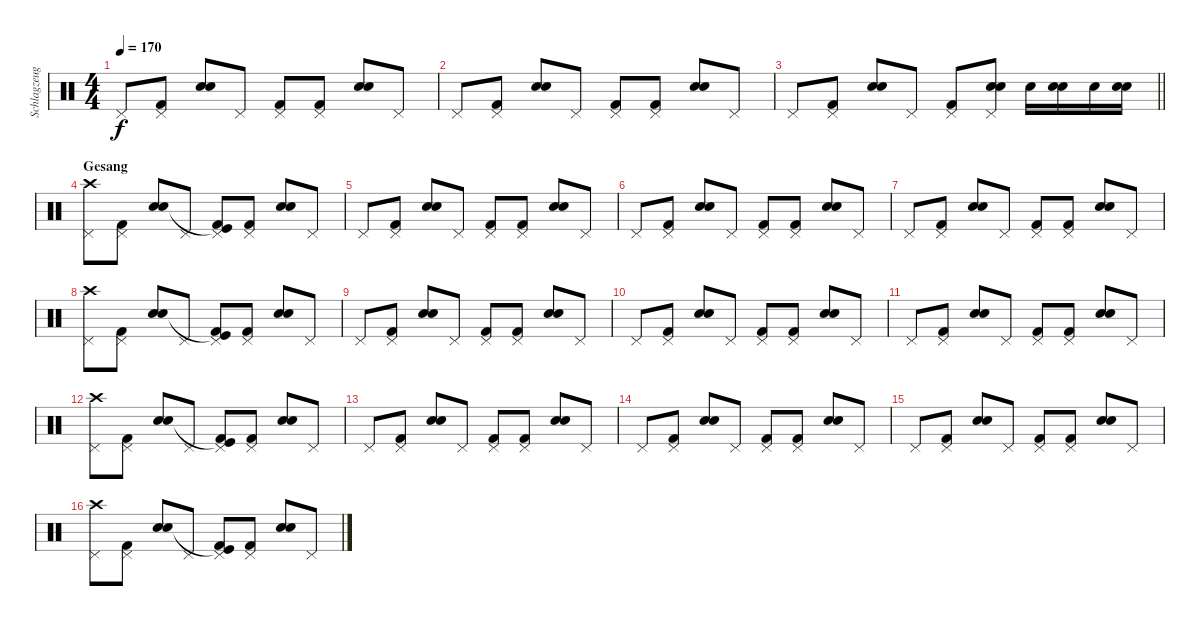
\track ("Schlagzeug" "Schlagzeug") {instrument percussion}
\staff {score}
\articulation defaults
\ts (4 4)
\tempo 170
\clef neutral
\ks c "Pedal Hi-Hat (hit)".8{dy f}
("Pedal Hi-Hat (hit)" "Kick (hit) 2").8 ("Snare (hit) 2" "Snare (hit) 2").8 "Pedal Hi-Hat (hit)".8 ("Pedal Hi-Hat (hit)" "Kick (hit) 2").8 ("Pedal Hi-Hat (hit)" "Kick (hit) 2").8 ("Snare (hit) 2" "Snare (hit) 2").8 "Pedal Hi-Hat (hit)".8 |
"Pedal Hi-Hat (hit)".8 ("Pedal Hi-Hat (hit)" "Kick (hit) 2").8 ("Snare (hit) 2" "Snare (hit) 2").8 "Pedal Hi-Hat (hit)".8 ("Pedal Hi-Hat (hit)" "Kick (hit) 2").8 ("Pedal Hi-Hat (hit)" "Kick (hit) 2").8 ("Snare (hit) 2" "Snare (hit) 2").8 "Pedal Hi-Hat (hit)".8 |
\barLineRight lightlight "Pedal Hi-Hat (hit)".8
("Pedal Hi-Hat (hit)" "Kick (hit) 2").8 ("Snare (hit) 2" "Snare (hit) 2").8 "Pedal Hi-Hat (hit)".8 ("Pedal Hi-Hat (hit)" "Kick (hit) 2").8 ("Pedal Hi-Hat (hit)" "Snare (hit) 2" "Snare (hit) 2").8 "Snare (hit) 2".16 ("Snare (hit) 2" "Snare (hit) 2").16 "Snare (hit) 2".16 ("Snare (hit) 2" "Snare (hit) 2").16 |
\section ("" "Gesang")
("Pedal Hi-Hat (hit)" "Crash high (hit)").8 ("Pedal Hi-Hat (hit)" "Kick (hit) 2").8 ("Snare (hit) 2" "Snare (hit) 2").8 "Pedal Hi-Hat (hit)".8 ("Pedal Hi-Hat (hit)" "Kick (hit)"{t} "Kick (hit) 2").8 ("Pedal Hi-Hat (hit)" "Kick (hit) 2").8 ("Snare (hit) 2" "Snare (hit) 2").8 "Pedal Hi-Hat (hit)".8 |
"Pedal Hi-Hat (hit)".8 ("Pedal Hi-Hat (hit)" "Kick (hit) 2").8 ("Snare (hit) 2" "Snare (hit) 2").8 "Pedal Hi-Hat (hit)".8 ("Pedal Hi-Hat (hit)" "Kick (hit) 2").8 ("Pedal Hi-Hat (hit)" "Kick (hit) 2").8 ("Snare (hit) 2" "Snare (hit) 2").8 "Pedal Hi-Hat (hit)".8 |
"Pedal Hi-Hat (hit)".8 ("Pedal Hi-Hat (hit)" "Kick (hit) 2").8 ("Snare (hit) 2" "Snare (hit) 2").8 "Pedal Hi-Hat (hit)".8 ("Pedal Hi-Hat (hit)" "Kick (hit) 2").8 ("Pedal Hi-Hat (hit)" "Kick (hit) 2").8 ("Snare (hit) 2" "Snare (hit) 2").8 "Pedal Hi-Hat (hit)".8 |
"Pedal Hi-Hat (hit)".8 ("Pedal Hi-Hat (hit)" "Kick (hit) 2").8 ("Snare (hit) 2" "Snare (hit) 2").8 "Pedal Hi-Hat (hit)".8 ("Pedal Hi-Hat (hit)" "Kick (hit) 2").8 ("Pedal Hi-Hat (hit)" "Kick (hit) 2").8 ("Snare (hit) 2" "Snare (hit) 2").8 "Pedal Hi-Hat (hit)".8 |
("Pedal Hi-Hat (hit)" "Crash high (hit)").8 ("Pedal Hi-Hat (hit)" "Kick (hit) 2").8 ("Snare (hit) 2" "Snare (hit) 2").8 "Pedal Hi-Hat (hit)".8 ("Pedal Hi-Hat (hit)" "Kick (hit)"{t} "Kick (hit) 2").8 ("Pedal Hi-Hat (hit)" "Kick (hit) 2").8 ("Snare (hit) 2" "Snare (hit) 2").8 "Pedal Hi-Hat (hit)".8 |
"Pedal Hi-Hat (hit)".8 ("Pedal Hi-Hat (hit)" "Kick (hit) 2").8 ("Snare (hit) 2" "Snare (hit) 2").8 "Pedal Hi-Hat (hit)".8 ("Pedal Hi-Hat (hit)" "Kick (hit) 2").8 ("Pedal Hi-Hat (hit)" "Kick (hit) 2").8 ("Snare (hit) 2" "Snare (hit) 2").8 "Pedal Hi-Hat (hit)".8 |
"Pedal Hi-Hat (hit)".8 ("Pedal Hi-Hat (hit)" "Kick (hit) 2").8 ("Snare (hit) 2" "Snare (hit) 2").8 "Pedal Hi-Hat (hit)".8 ("Pedal Hi-Hat (hit)" "Kick (hit) 2").8 ("Pedal Hi-Hat (hit)" "Kick (hit) 2").8 ("Snare (hit) 2" "Snare (hit) 2").8 "Pedal Hi-Hat (hit)".8 |
"Pedal Hi-Hat (hit)".8 ("Pedal Hi-Hat (hit)" "Kick (hit) 2").8 ("Snare (hit) 2" "Snare (hit) 2").8 "Pedal Hi-Hat (hit)".8 ("Pedal Hi-Hat (hit)" "Kick (hit) 2").8 ("Pedal Hi-Hat (hit)" "Kick (hit) 2").8 ("Snare (hit) 2" "Snare (hit) 2").8 "Pedal Hi-Hat (hit)".8 |
("Pedal Hi-Hat (hit)" "Crash high (hit)").8 ("Pedal Hi-Hat (hit)" "Kick (hit) 2").8 ("Snare (hit) 2" "Snare (hit) 2").8 "Pedal Hi-Hat (hit)".8 ("Pedal Hi-Hat (hit)" "Kick (hit)"{t} "Kick (hit) 2").8 ("Pedal Hi-Hat (hit)" "Kick (hit) 2").8 ("Snare (hit) 2" "Snare (hit) 2").8 "Pedal Hi-Hat (hit)".8 |
"Pedal Hi-Hat (hit)".8 ("Pedal Hi-Hat (hit)" "Kick (hit) 2").8 ("Snare (hit) 2" "Snare (hit) 2").8 "Pedal Hi-Hat (hit)".8 ("Pedal Hi-Hat (hit)" "Kick (hit) 2").8 ("Pedal Hi-Hat (hit)" "Kick (hit) 2").8 ("Snare (hit) 2" "Snare (hit) 2").8 "Pedal Hi-Hat (hit)".8 |
"Pedal Hi-Hat (hit)".8 ("Pedal Hi-Hat (hit)" "Kick (hit) 2").8 ("Snare (hit) 2" "Snare (hit) 2").8 "Pedal Hi-Hat (hit)".8 ("Pedal Hi-Hat (hit)" "Kick (hit) 2").8 ("Pedal Hi-Hat (hit)" "Kick (hit) 2").8 ("Snare (hit) 2" "Snare (hit) 2").8 "Pedal Hi-Hat (hit)".8 |
"Pedal Hi-Hat (hit)".8 ("Pedal Hi-Hat (hit)" "Kick (hit) 2").8 ("Snare (hit) 2" "Snare (hit) 2").8 "Pedal Hi-Hat (hit)".8 ("Pedal Hi-Hat (hit)" "Kick (hit) 2").8 ("Pedal Hi-Hat (hit)" "Kick (hit) 2").8 ("Snare (hit) 2" "Snare (hit) 2").8 "Pedal Hi-Hat (hit)".8 |
("Pedal Hi-Hat (hit)" "Crash high (hit)").8 ("Pedal Hi-Hat (hit)" "Kick (hit) 2").8 ("Snare (hit) 2" "Snare (hit) 2").8 "Pedal Hi-Hat (hit)".8 ("Pedal Hi-Hat (hit)" "Kick (hit)"{t} "Kick (hit) 2").8 ("Pedal Hi-Hat (hit)" "Kick (hit) 2").8 ("Snare (hit) 2" "Snare (hit) 2").8 "Pedal Hi-Hat (hit)".8
